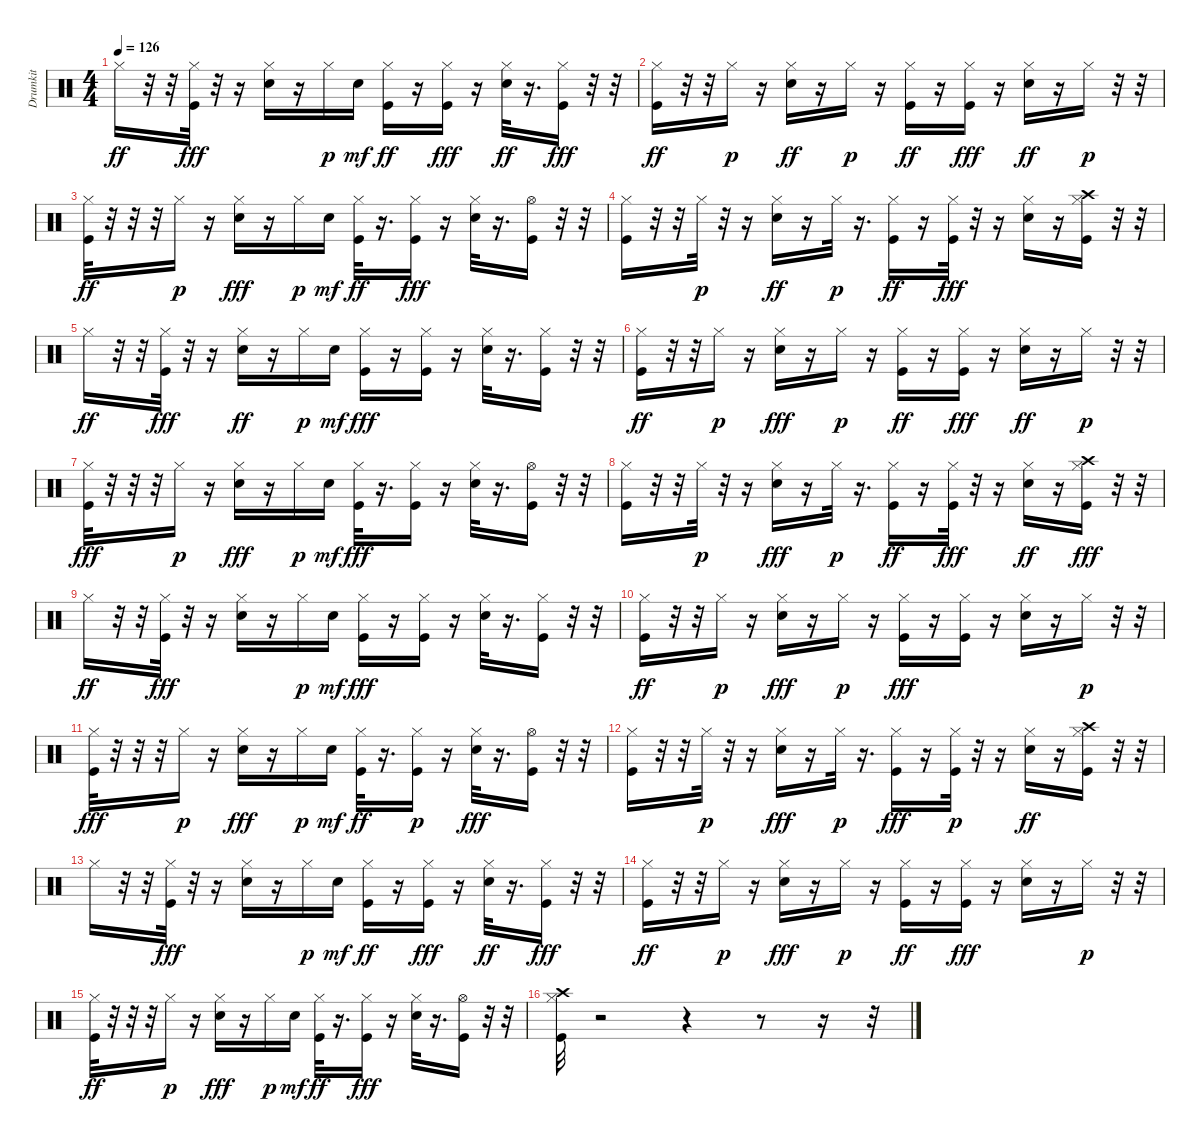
\track ("Drumkit" "Drumkit") {instrument percussion}
\staff {score}
\articulation defaults
\ts (4 4)
\tempo 126
\clef neutral
\ks c "Hi-Hat (closed)".16{dy ff}
r.32 r.32 ("Kick (hit)" "Hi-Hat (closed)").32{dy fff} r.32 r.16 ("Snare (hit) 2" "Hi-Hat (closed)").16 r.16 "Hi-Hat (closed)".16{dy p} "Snare (hit) 2".16{dy mf} ("Hi-Hat (closed)" "Kick (hit)").16{dy ff} r.16 ("Kick (hit)" "Hi-Hat (closed)").16{dy fff} r.16 ("Hi-Hat (closed)" "Snare (hit) 2").32{dy ff} r.16{d} ("Kick (hit)" "Hi-Hat (closed)").16{dy fff} r.32 r.32 |
("Hi-Hat (closed)" "Kick (hit)").16{dy ff} r.32 r.32 "Hi-Hat (closed)".16{dy p} r.16 ("Hi-Hat (closed)" "Snare (hit) 2").16{dy ff} r.16 "Hi-Hat (closed)".16{dy p} r.16 ("Hi-Hat (closed)" "Kick (hit)").16{dy ff} r.16 ("Kick (hit)" "Hi-Hat (closed)").16{dy fff} r.16 ("Hi-Hat (closed)" "Snare (hit) 2").16{dy ff} r.16 "Hi-Hat (closed)".16{dy p} r.32 r.32 |
("Hi-Hat (closed)" "Kick (hit)").32{dy ff} r.32 r.32 r.32 "Hi-Hat (closed)".16{dy p} r.16 ("Snare (hit) 2" "Hi-Hat (closed)").16{dy fff} r.16 "Hi-Hat (closed)".16{dy p} "Snare (hit) 2".16{dy mf} ("Hi-Hat (closed)" "Kick (hit)").32{dy ff} r.16{d} ("Kick (hit)" "Hi-Hat (closed)").16{dy fff} r.16 ("Snare (hit) 2" "Hi-Hat (closed)").32 r.16{d} ("Kick (hit)" "Hi-Hat (open)").16 r.32 r.32 |
("Kick (hit)" "Hi-Hat (closed)").16 r.32 r.32 "Hi-Hat (closed)".32{dy p} r.32 r.16 ("Hi-Hat (closed)" "Snare (hit) 2").16{dy ff} r.16 "Hi-Hat (closed)".32{dy p} r.16{d} ("Hi-Hat (closed)" "Kick (hit)").16{dy ff} r.16 ("Kick (hit)" "Hi-Hat (closed)").32{dy fff} r.32 r.16 ("Snare (hit) 2" "Hi-Hat (closed)").16 r.16 ("Kick (hit)" "Crash high (hit)" "Hi-Hat (closed)").16 r.32 r.32 |
"Hi-Hat (closed)".16{dy ff} r.32 r.32 ("Kick (hit)" "Hi-Hat (closed)").32{dy fff} r.32 r.16 ("Hi-Hat (closed)" "Snare (hit) 2").16{dy ff} r.16 "Hi-Hat (closed)".16{dy p} "Snare (hit) 2".16{dy mf} ("Kick (hit)" "Hi-Hat (closed)").16{dy fff} r.16 ("Kick (hit)" "Hi-Hat (closed)").16 r.16 ("Snare (hit) 2" "Hi-Hat (closed)").32 r.16{d} ("Kick (hit)" "Hi-Hat (closed)").16 r.32 r.32 |
("Hi-Hat (closed)" "Kick (hit)").16{dy ff} r.32 r.32 "Hi-Hat (closed)".16{dy p} r.16 ("Snare (hit) 2" "Hi-Hat (closed)").16{dy fff} r.16 "Hi-Hat (closed)".16{dy p} r.16 ("Hi-Hat (closed)" "Kick (hit)").16{dy ff} r.16 ("Kick (hit)" "Hi-Hat (closed)").16{dy fff} r.16 ("Hi-Hat (closed)" "Snare (hit) 2").16{dy ff} r.16 "Hi-Hat (closed)".16{dy p} r.32 r.32 |
("Kick (hit)" "Hi-Hat (closed)").32{dy fff} r.32 r.32 r.32 "Hi-Hat (closed)".16{dy p} r.16 ("Snare (hit) 2" "Hi-Hat (closed)").16{dy fff} r.16 "Hi-Hat (closed)".16{dy p} "Snare (hit) 2".16{dy mf} ("Kick (hit)" "Hi-Hat (closed)").32{dy fff} r.16{d} ("Kick (hit)" "Hi-Hat (closed)").16 r.16 ("Snare (hit) 2" "Hi-Hat (closed)").32 r.16{d} ("Kick (hit)" "Hi-Hat (open)").16 r.32 r.32 |
("Kick (hit)" "Hi-Hat (closed)").16 r.32 r.32 "Hi-Hat (closed)".32{dy p} r.32 r.16 ("Snare (hit) 2" "Hi-Hat (closed)").16{dy fff} r.16 "Hi-Hat (closed)".32{dy p} r.16{d} ("Hi-Hat (closed)" "Kick (hit)").16{dy ff} r.16 ("Kick (hit)" "Hi-Hat (closed)").32{dy fff} r.32 r.16 ("Hi-Hat (closed)" "Snare (hit) 2").16{dy ff} r.16 ("Kick (hit)" "Crash high (hit)" "Hi-Hat (closed)").16{dy fff} r.32 r.32 |
"Hi-Hat (closed)".16{dy ff} r.32 r.32 ("Kick (hit)" "Hi-Hat (closed)").32{dy fff} r.32 r.16 ("Snare (hit) 2" "Hi-Hat (closed)").16 r.16 "Hi-Hat (closed)".16{dy p} "Snare (hit) 2".16{dy mf} ("Kick (hit)" "Hi-Hat (closed)").16{dy fff} r.16 ("Kick (hit)" "Hi-Hat (closed)").16 r.16 ("Snare (hit) 2" "Hi-Hat (closed)").32 r.16{d} ("Kick (hit)" "Hi-Hat (closed)").16 r.32 r.32 |
("Hi-Hat (closed)" "Kick (hit)").16{dy ff} r.32 r.32 "Hi-Hat (closed)".16{dy p} r.16 ("Snare (hit) 2" "Hi-Hat (closed)").16{dy fff} r.16 "Hi-Hat (closed)".16{dy p} r.16 ("Kick (hit)" "Hi-Hat (closed)").16{dy fff} r.16 ("Kick (hit)" "Hi-Hat (closed)").16 r.16 ("Snare (hit) 2" "Hi-Hat (closed)").16 r.16 "Hi-Hat (closed)".16{dy p} r.32 r.32 |
("Kick (hit)" "Hi-Hat (closed)").32{dy fff} r.32 r.32 r.32 "Hi-Hat (closed)".16{dy p} r.16 ("Snare (hit) 2" "Hi-Hat (closed)").16{dy fff} r.16 "Hi-Hat (closed)".16{dy p} "Snare (hit) 2".16{dy mf} ("Hi-Hat (closed)" "Kick (hit)").32{dy ff} r.16{d} ("Hi-Hat (closed)" "Kick (hit)").16{dy p} r.16 ("Snare (hit) 2" "Hi-Hat (closed)").32{dy fff} r.16{d} ("Kick (hit)" "Hi-Hat (open)").16 r.32 r.32 |
("Kick (hit)" "Hi-Hat (closed)").16 r.32 r.32 "Hi-Hat (closed)".32{dy p} r.32 r.16 ("Snare (hit) 2" "Hi-Hat (closed)").16{dy fff} r.16 "Hi-Hat (closed)".32{dy p} r.16{d} ("Kick (hit)" "Hi-Hat (closed)").16{dy fff} r.16 ("Hi-Hat (closed)" "Kick (hit)").32{dy p} r.32 r.16 ("Hi-Hat (closed)" "Snare (hit) 2").16{dy ff} r.16 ("Crash high (hit)" "Kick (hit)" "Hi-Hat (closed)").16 r.32 r.32 |
"Hi-Hat (closed)".16 r.32 r.32 ("Kick (hit)" "Hi-Hat (closed)").32{dy fff} r.32 r.16 ("Snare (hit) 2" "Hi-Hat (closed)").16 r.16 "Hi-Hat (closed)".16{dy p} "Snare (hit) 2".16{dy mf} ("Hi-Hat (closed)" "Kick (hit)").16{dy ff} r.16 ("Kick (hit)" "Hi-Hat (closed)").16{dy fff} r.16 ("Hi-Hat (closed)" "Snare (hit) 2").32{dy ff} r.16{d} ("Kick (hit)" "Hi-Hat (closed)").16{dy fff} r.32 r.32 |
("Hi-Hat (closed)" "Kick (hit)").16{dy ff} r.32 r.32 "Hi-Hat (closed)".16{dy p} r.16 ("Snare (hit) 2" "Hi-Hat (closed)").16{dy fff} r.16 "Hi-Hat (closed)".16{dy p} r.16 ("Hi-Hat (closed)" "Kick (hit)").16{dy ff} r.16 ("Kick (hit)" "Hi-Hat (closed)").16{dy fff} r.16 ("Snare (hit) 2" "Hi-Hat (closed)").16 r.16 "Hi-Hat (closed)".16{dy p} r.32 r.32 |
("Hi-Hat (closed)" "Kick (hit)").32{dy ff} r.32 r.32 r.32 "Hi-Hat (closed)".16{dy p} r.16 ("Snare (hit) 2" "Hi-Hat (closed)").16{dy fff} r.16 "Hi-Hat (closed)".16{dy p} "Snare (hit) 2".16{dy mf} ("Hi-Hat (closed)" "Kick (hit)").32{dy ff} r.16{d} ("Kick (hit)" "Hi-Hat (closed)").16{dy fff} r.16 ("Snare (hit) 2" "Hi-Hat (closed)").32 r.16{d} ("Kick (hit)" "Hi-Hat (open)").16 r.32 r.32 |
("Kick (hit)" "Crash high (hit)" "Hi-Hat (closed)").32 r.2 r.4 r.8 r.16 r.32
